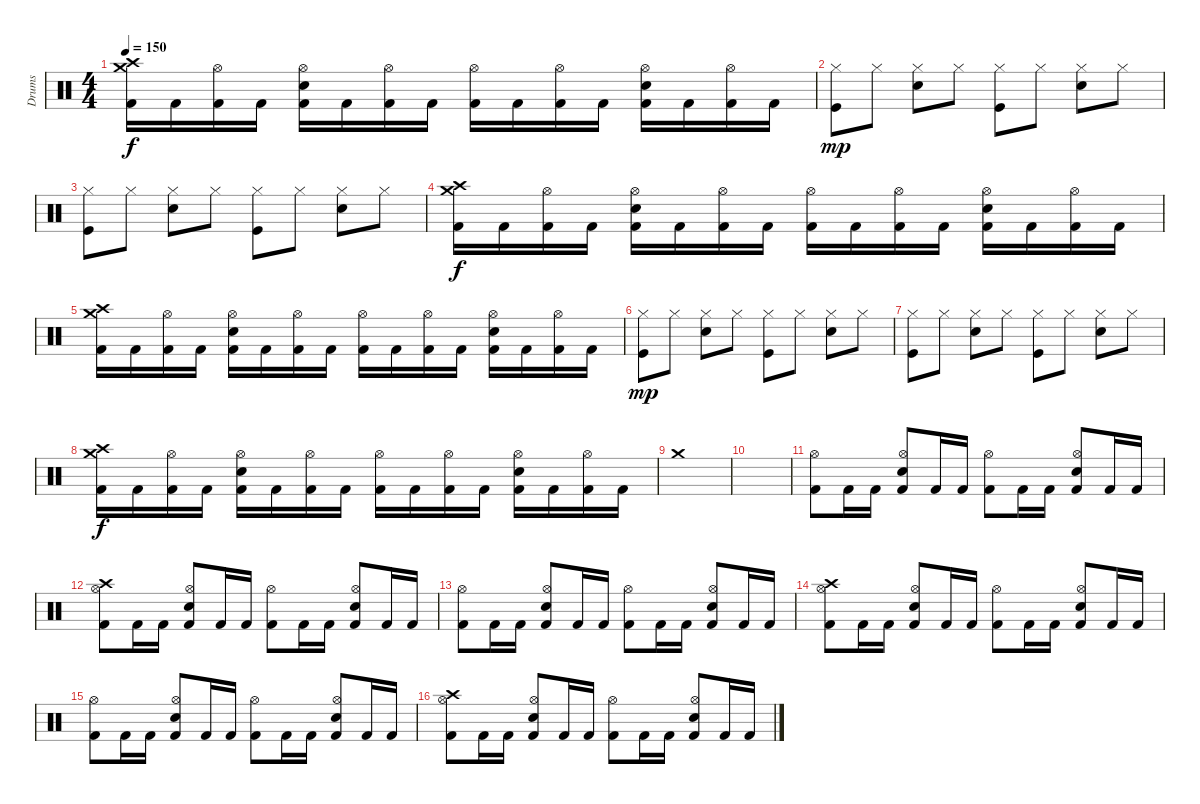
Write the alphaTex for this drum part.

\track ("Drums" "Drums") {instrument percussion}
\staff {score}
\articulation defaults
\ts (4 4)
\tempo 150
\clef neutral
\ks c
("Crash high (hit)" "Crash medium (hit)" "Kick (hit) 2").16{dy f} "Kick (hit) 2".16 ("Hi-Hat (open)" "Kick (hit) 2").16 "Kick (hit) 2".16 ("Hi-Hat (open)" "Electric Snare (hit)" "Kick (hit) 2").16 "Kick (hit) 2".16 ("Hi-Hat (open)" "Kick (hit) 2").16 "Kick (hit) 2".16 ("Hi-Hat (open)" "Kick (hit) 2").16 "Kick (hit) 2".16 ("Hi-Hat (open)" "Kick (hit) 2").16 "Kick (hit) 2".16 ("Hi-Hat (open)" "Electric Snare (hit)" "Kick (hit) 2").16 "Kick (hit) 2".16 ("Hi-Hat (open)" "Kick (hit) 2").16 "Kick (hit) 2".16 |
("Kick (hit)" "Hi-Hat (closed)").8{dy mp} "Hi-Hat (closed)".8 ("Snare (hit) 2" "Hi-Hat (closed)").8 "Hi-Hat (closed)".8 ("Kick (hit)" "Hi-Hat (closed)").8 "Hi-Hat (closed)".8 ("Snare (hit) 2" "Hi-Hat (closed)").8 "Hi-Hat (closed)".8 |
("Kick (hit)" "Hi-Hat (closed)").8 "Hi-Hat (closed)".8 ("Snare (hit) 2" "Hi-Hat (closed)").8 "Hi-Hat (closed)".8 ("Kick (hit)" "Hi-Hat (closed)").8 "Hi-Hat (closed)".8 ("Snare (hit) 2" "Hi-Hat (closed)").8 "Hi-Hat (closed)".8 |
("Crash high (hit)" "Crash medium (hit)" "Kick (hit) 2").16{dy f} "Kick (hit) 2".16 ("Hi-Hat (open)" "Kick (hit) 2").16 "Kick (hit) 2".16 ("Hi-Hat (open)" "Electric Snare (hit)" "Kick (hit) 2").16 "Kick (hit) 2".16 ("Hi-Hat (open)" "Kick (hit) 2").16 "Kick (hit) 2".16 ("Hi-Hat (open)" "Kick (hit) 2").16 "Kick (hit) 2".16 ("Hi-Hat (open)" "Kick (hit) 2").16 "Kick (hit) 2".16 ("Hi-Hat (open)" "Electric Snare (hit)" "Kick (hit) 2").16 "Kick (hit) 2".16 ("Hi-Hat (open)" "Kick (hit) 2").16 "Kick (hit) 2".16 |
("Crash high (hit)" "Crash medium (hit)" "Kick (hit) 2").16 "Kick (hit) 2".16 ("Hi-Hat (open)" "Kick (hit) 2").16 "Kick (hit) 2".16 ("Hi-Hat (open)" "Electric Snare (hit)" "Kick (hit) 2").16 "Kick (hit) 2".16 ("Hi-Hat (open)" "Kick (hit) 2").16 "Kick (hit) 2".16 ("Hi-Hat (open)" "Kick (hit) 2").16 "Kick (hit) 2".16 ("Hi-Hat (open)" "Kick (hit) 2").16 "Kick (hit) 2".16 ("Hi-Hat (open)" "Electric Snare (hit)" "Kick (hit) 2").16 "Kick (hit) 2".16 ("Hi-Hat (open)" "Kick (hit) 2").16 "Kick (hit) 2".16 |
("Kick (hit)" "Hi-Hat (closed)").8{dy mp} "Hi-Hat (closed)".8 ("Snare (hit) 2" "Hi-Hat (closed)").8 "Hi-Hat (closed)".8 ("Kick (hit)" "Hi-Hat (closed)").8 "Hi-Hat (closed)".8 ("Snare (hit) 2" "Hi-Hat (closed)").8 "Hi-Hat (closed)".8 |
("Kick (hit)" "Hi-Hat (closed)").8 "Hi-Hat (closed)".8 ("Snare (hit) 2" "Hi-Hat (closed)").8 "Hi-Hat (closed)".8 ("Kick (hit)" "Hi-Hat (closed)").8 "Hi-Hat (closed)".8 ("Snare (hit) 2" "Hi-Hat (closed)").8 "Hi-Hat (closed)".8 |
("Crash high (hit)" "Crash medium (hit)" "Kick (hit) 2").16{dy f} "Kick (hit) 2".16 ("Hi-Hat (open)" "Kick (hit) 2").16 "Kick (hit) 2".16 ("Hi-Hat (open)" "Electric Snare (hit)" "Kick (hit) 2").16 "Kick (hit) 2".16 ("Hi-Hat (open)" "Kick (hit) 2").16 "Kick (hit) 2".16 ("Hi-Hat (open)" "Kick (hit) 2").16 "Kick (hit) 2".16 ("Hi-Hat (open)" "Kick (hit) 2").16 "Kick (hit) 2".16 ("Hi-Hat (open)" "Electric Snare (hit)" "Kick (hit) 2").16 "Kick (hit) 2".16 ("Hi-Hat (open)" "Kick (hit) 2").16 "Kick (hit) 2".16 |
"Crash medium (hit)".1 |
|
("Hi-Hat (open)" "Kick (hit) 2").8 "Kick (hit) 2".16 "Kick (hit) 2".16 ("Hi-Hat (open)" "Snare (hit) 2" "Kick (hit) 2").8 "Kick (hit) 2".16 "Kick (hit) 2".16 ("Hi-Hat (open)" "Kick (hit) 2").8 "Kick (hit) 2".16 "Kick (hit) 2".16 ("Hi-Hat (open)" "Snare (hit) 2" "Kick (hit) 2").8 "Kick (hit) 2".16 "Kick (hit) 2".16 |
("Crash high (hit)" "Hi-Hat (open)" "Kick (hit) 2").8 "Kick (hit) 2".16 "Kick (hit) 2".16 ("Hi-Hat (open)" "Snare (hit) 2" "Kick (hit) 2").8 "Kick (hit) 2".16 "Kick (hit) 2".16 ("Hi-Hat (open)" "Kick (hit) 2").8 "Kick (hit) 2".16 "Kick (hit) 2".16 ("Hi-Hat (open)" "Snare (hit) 2" "Kick (hit) 2").8 "Kick (hit) 2".16 "Kick (hit) 2".16 |
("Hi-Hat (open)" "Kick (hit) 2").8 "Kick (hit) 2".16 "Kick (hit) 2".16 ("Hi-Hat (open)" "Snare (hit) 2" "Kick (hit) 2").8 "Kick (hit) 2".16 "Kick (hit) 2".16 ("Hi-Hat (open)" "Kick (hit) 2").8 "Kick (hit) 2".16 "Kick (hit) 2".16 ("Hi-Hat (open)" "Snare (hit) 2" "Kick (hit) 2").8 "Kick (hit) 2".16 "Kick (hit) 2".16 |
("Crash high (hit)" "Hi-Hat (open)" "Kick (hit) 2").8 "Kick (hit) 2".16 "Kick (hit) 2".16 ("Hi-Hat (open)" "Snare (hit) 2" "Kick (hit) 2").8 "Kick (hit) 2".16 "Kick (hit) 2".16 ("Hi-Hat (open)" "Kick (hit) 2").8 "Kick (hit) 2".16 "Kick (hit) 2".16 ("Hi-Hat (open)" "Snare (hit) 2" "Kick (hit) 2").8 "Kick (hit) 2".16 "Kick (hit) 2".16 |
("Hi-Hat (open)" "Kick (hit) 2").8 "Kick (hit) 2".16 "Kick (hit) 2".16 ("Hi-Hat (open)" "Snare (hit) 2" "Kick (hit) 2").8 "Kick (hit) 2".16 "Kick (hit) 2".16 ("Hi-Hat (open)" "Kick (hit) 2").8 "Kick (hit) 2".16 "Kick (hit) 2".16 ("Hi-Hat (open)" "Snare (hit) 2" "Kick (hit) 2").8 "Kick (hit) 2".16 "Kick (hit) 2".16 |
("Crash high (hit)" "Hi-Hat (open)" "Kick (hit) 2").8 "Kick (hit) 2".16 "Kick (hit) 2".16 ("Hi-Hat (open)" "Snare (hit) 2" "Kick (hit) 2").8 "Kick (hit) 2".16 "Kick (hit) 2".16 ("Hi-Hat (open)" "Kick (hit) 2").8 "Kick (hit) 2".16 "Kick (hit) 2".16 ("Hi-Hat (open)" "Snare (hit) 2" "Kick (hit) 2").8 "Kick (hit) 2".16 "Kick (hit) 2".16
